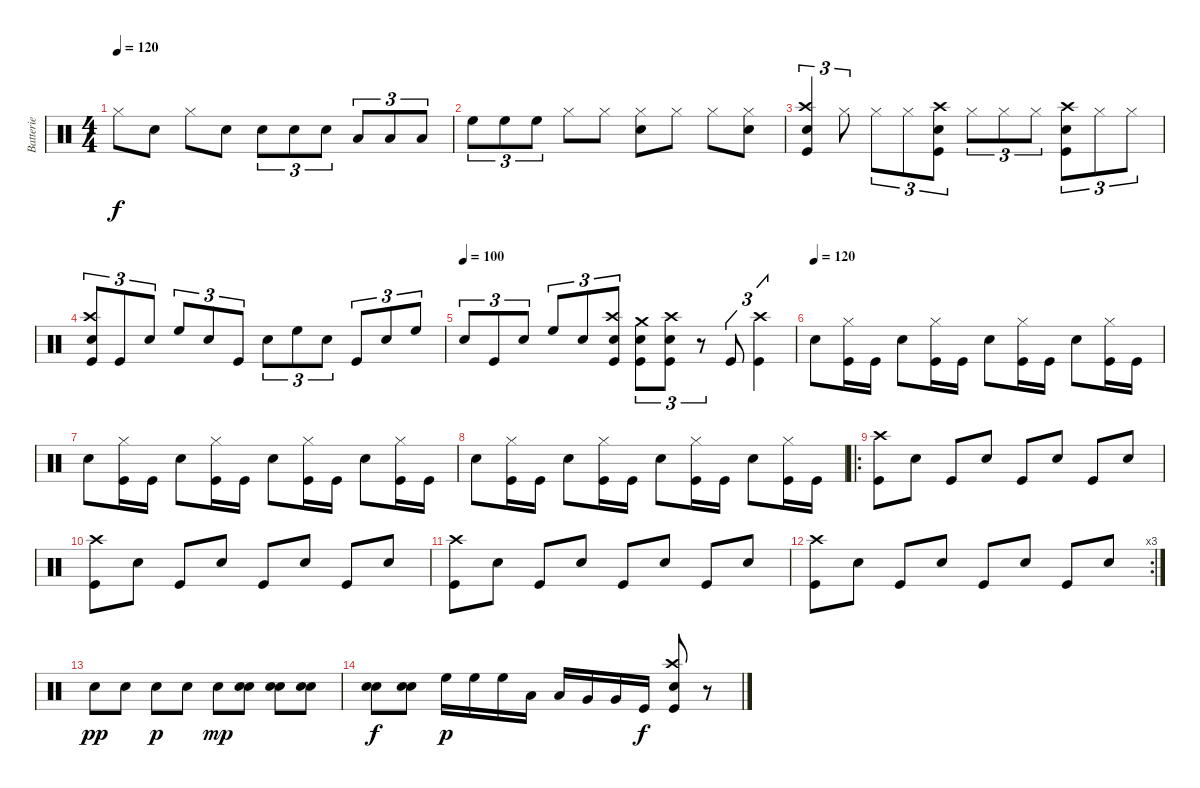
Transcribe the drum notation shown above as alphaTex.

\track ("Batterie" "Batterie") {instrument percussion}
\staff {score}
\articulation defaults
\ts (4 4)
\tempo 120
\clef neutral
\ks c "Hi-Hat (closed)".8{dy f} "Electric Snare (hit)".8 "Hi-Hat (closed)".8 "Electric Snare (hit)".8 "Electric Snare (hit)".8{tu (3 2)} "Electric Snare (hit)".8{tu (3 2)} "Electric Snare (hit)".8{tu (3 2)} "Low Tom (hit)".8{tu (3 2)} "Low Tom (hit)".8{tu (3 2)} "Low Tom (hit)".8{tu (3 2)}
|
"High Floor Tom (hit)".8{tu (3 2)} "High Floor Tom (hit)".8{tu (3 2)} "High Floor Tom (hit)".8{tu (3 2)} "Hi-Hat (closed)".8 "Hi-Hat (closed)".8 ("Hi-Hat (closed)" "Electric Snare (hit)").8 "Hi-Hat (closed)".8 "Hi-Hat (closed)".8 ("Hi-Hat (closed)" "Electric Snare (hit)").8 |
("Crash high (hit)" "Electric Snare (hit)" "Kick (hit)").4{tu (3 2)} "Hi-Hat (closed)".8{tu (3 2)} "Hi-Hat (closed)".8{tu (3 2)} "Hi-Hat (closed)".8{tu (3 2)} ("Crash high (hit)" "Electric Snare (hit)" "Kick (hit)").8{tu (3 2)} "Hi-Hat (closed)".8{tu (3 2)} "Hi-Hat (closed)".8{tu (3 2)} "Hi-Hat (closed)".8{tu (3 2)} ("Crash high (hit)" "Electric Snare (hit)" "Kick (hit)").8{tu (3 2)} "Hi-Hat (closed)".8{tu (3 2)} "Hi-Hat (closed)".8{tu (3 2)} |
("Crash high (hit)" "Electric Snare (hit)" "Kick (hit)").8{tu (3 2)} "Kick (hit)".8{tu (3 2)} "Electric Snare (hit)".8{tu (3 2)} "High Floor Tom (hit)".8{tu (3 2)} "Electric Snare (hit)".8{tu (3 2)} "Kick (hit)".8{tu (3 2)} "Electric Snare (hit)".8{tu (3 2)} "High Floor Tom (hit)".8{tu (3 2)} "Electric Snare (hit)".8{tu (3 2)} "Kick (hit)".8{tu (3 2)} "Electric Snare (hit)".8{tu (3 2)} "High Floor Tom (hit)".8{tu (3 2)} |
\tempo (100)
"Electric Snare (hit)".8{tu (3 2)} "Kick (hit)".8{tu (3 2)} "Electric Snare (hit)".8{tu (3 2)} "High Floor Tom (hit)".8{tu (3 2)} "Electric Snare (hit)".8{tu (3 2)} ("Crash high (hit)" "Electric Snare (hit)" "Kick (hit)").8{tu (3 2)} ("Crash medium (hit)" "Electric Snare (hit)" "Kick (hit)").8{tu (3 2)} ("Crash high (hit)" "Electric Snare (hit)" "Kick (hit)").8{tu (3 2)} r.8{tu (3 2)} "Kick (hit)".8{tu (3 2)} ("Crash high (hit)" "Kick (hit)").4{tu (3 2)} |
\tempo (120)
"Electric Snare (hit)".8 ("Hi-Hat (closed)" "Kick (hit)").16 "Kick (hit)".16 "Electric Snare (hit)".8 ("Hi-Hat (closed)" "Kick (hit)").16 "Kick (hit)".16 "Electric Snare (hit)".8 ("Hi-Hat (closed)" "Kick (hit)").16 "Kick (hit)".16 "Electric Snare (hit)".8 ("Hi-Hat (closed)" "Kick (hit)").16 "Kick (hit)".16 |
"Electric Snare (hit)".8 ("Hi-Hat (closed)" "Kick (hit)").16 "Kick (hit)".16 "Electric Snare (hit)".8 ("Hi-Hat (closed)" "Kick (hit)").16 "Kick (hit)".16 "Electric Snare (hit)".8 ("Hi-Hat (closed)" "Kick (hit)").16 "Kick (hit)".16 "Electric Snare (hit)".8 ("Hi-Hat (closed)" "Kick (hit)").16 "Kick (hit)".16 |
"Electric Snare (hit)".8 ("Hi-Hat (closed)" "Kick (hit)").16 "Kick (hit)".16 "Electric Snare (hit)".8 ("Hi-Hat (closed)" "Kick (hit)").16 "Kick (hit)".16 "Electric Snare (hit)".8 ("Hi-Hat (closed)" "Kick (hit)").16 "Kick (hit)".16 "Electric Snare (hit)".8 ("Hi-Hat (closed)" "Kick (hit)").16 "Kick (hit)".16 |
\ro
("Crash high (hit)" "Kick (hit)").8 "Electric Snare (hit)".8 "Kick (hit)".8 "Electric Snare (hit)".8 "Kick (hit)".8 "Electric Snare (hit)".8 "Kick (hit)".8 "Electric Snare (hit)".8 |
("Crash high (hit)" "Kick (hit)").8 "Electric Snare (hit)".8 "Kick (hit)".8 "Electric Snare (hit)".8 "Kick (hit)".8 "Electric Snare (hit)".8 "Kick (hit)".8 "Electric Snare (hit)".8 |
("Crash high (hit)" "Kick (hit)").8 "Electric Snare (hit)".8 "Kick (hit)".8 "Electric Snare (hit)".8 "Kick (hit)".8 "Electric Snare (hit)".8 "Kick (hit)".8 "Electric Snare (hit)".8 |
\rc 3
("Crash high (hit)" "Kick (hit)").8 "Electric Snare (hit)".8 "Kick (hit)".8 "Electric Snare (hit)".8 "Kick (hit)".8 "Electric Snare (hit)".8 "Kick (hit)".8 "Electric Snare (hit)".8 |
"Electric Snare (hit)".8{dy pp} "Electric Snare (hit)".8 "Electric Snare (hit)".8{dy p} "Electric Snare (hit)".8 "Electric Snare (hit)".8{dy mp} ("Electric Snare (hit)" "Electric Snare (hit)").8 ("Electric Snare (hit)" "Electric Snare (hit)").8 ("Electric Snare (hit)" "Electric Snare (hit)").8 |
("Electric Snare (hit)" "Electric Snare (hit)").8{dy f} ("Electric Snare (hit)" "Electric Snare (hit)").8 "High Floor Tom (hit)".16{dy p} "High Floor Tom (hit)".16 "High Floor Tom (hit)".16 "Low Tom (hit)".16 "Low Tom (hit)".16 "Very Low Tom (hit)".16 "Very Low Tom (hit)".16 "Kick (hit)".16{dy f} ("Crash high (hit)" "Electric Snare (hit)" "Kick (hit)").8 r.8
